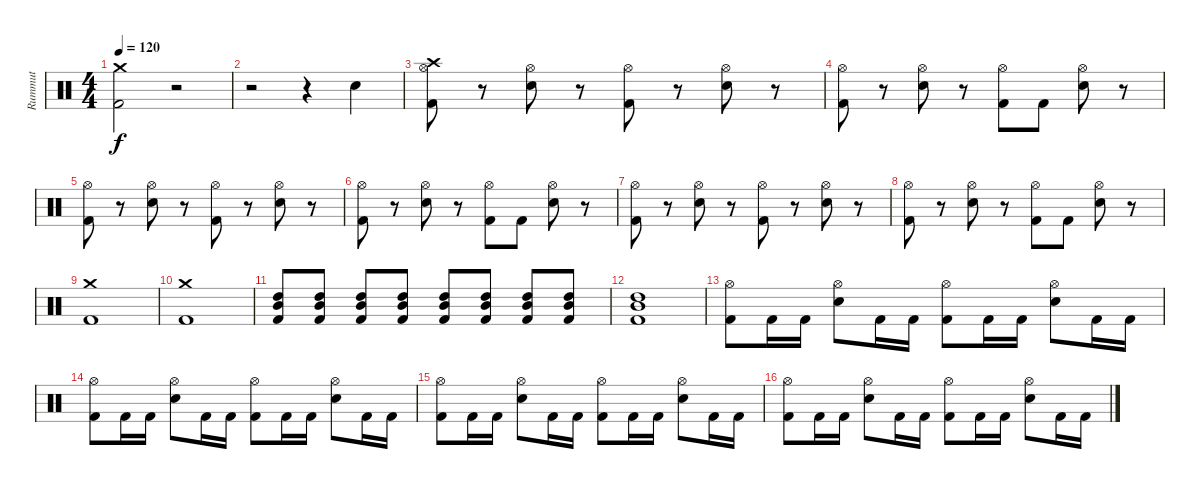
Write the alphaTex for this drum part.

\track ("Rummut" "Rummut") {instrument percussion}
\staff {score}
\articulation defaults
\ts (4 4)
\tempo 120
\clef neutral
\ks c
("Kick (hit) 2" "Crash medium (hit)").2{dy f} r.2 |
r.2 r.4 "Snare (hit) 2".4 |
("Kick (hit) 2" "Hi-Hat (open)" "Crash high (hit)").8 r.8 ("Snare (hit) 2" "Hi-Hat (open)").8 r.8 ("Kick (hit) 2" "Hi-Hat (open)").8 r.8 ("Snare (hit) 2" "Hi-Hat (open)").8 r.8 |
("Kick (hit) 2" "Hi-Hat (open)").8 r.8 ("Snare (hit) 2" "Hi-Hat (open)").8 r.8 ("Kick (hit) 2" "Hi-Hat (open)").8 "Kick (hit) 2".8 ("Snare (hit) 2" "Hi-Hat (open)").8 r.8 |
("Kick (hit) 2" "Hi-Hat (open)").8 r.8 ("Snare (hit) 2" "Hi-Hat (open)").8 r.8 ("Kick (hit) 2" "Hi-Hat (open)").8 r.8 ("Snare (hit) 2" "Hi-Hat (open)").8 r.8 |
("Kick (hit) 2" "Hi-Hat (open)").8 r.8 ("Snare (hit) 2" "Hi-Hat (open)").8 r.8 ("Kick (hit) 2" "Hi-Hat (open)").8 "Kick (hit) 2".8 ("Snare (hit) 2" "Hi-Hat (open)").8 r.8 |
("Kick (hit) 2" "Hi-Hat (open)").8 r.8 ("Snare (hit) 2" "Hi-Hat (open)").8 r.8 ("Kick (hit) 2" "Hi-Hat (open)").8 r.8 ("Snare (hit) 2" "Hi-Hat (open)").8 r.8 |
("Kick (hit) 2" "Hi-Hat (open)").8 r.8 ("Snare (hit) 2" "Hi-Hat (open)").8 r.8 ("Kick (hit) 2" "Hi-Hat (open)").8 "Kick (hit) 2".8 ("Snare (hit) 2" "Hi-Hat (open)").8 r.8 |
("Kick (hit) 2" "Crash medium (hit)").1 |
("Kick (hit) 2" "Crash medium (hit)").1 |
("Kick (hit) 2" "High Tom (hit)" "Mid Tom (hit)").8 ("Kick (hit) 2" "High Tom (hit)" "Mid Tom (hit)").8 ("Kick (hit) 2" "High Tom (hit)" "Mid Tom (hit)").8 ("Kick (hit) 2" "High Tom (hit)" "Mid Tom (hit)").8 ("Kick (hit) 2" "High Tom (hit)" "Mid Tom (hit)").8 ("Kick (hit) 2" "High Tom (hit)" "Mid Tom (hit)").8 ("Kick (hit) 2" "High Tom (hit)" "Mid Tom (hit)").8 ("Kick (hit) 2" "High Tom (hit)" "Mid Tom (hit)").8 |
("Kick (hit) 2" "High Tom (hit)" "Mid Tom (hit)").1 |
("Kick (hit) 2" "Hi-Hat (open)").8 "Kick (hit) 2".16 "Kick (hit) 2".16 ("Snare (hit) 2" "Hi-Hat (open)").8 "Kick (hit) 2".16 "Kick (hit) 2".16 ("Kick (hit) 2" "Hi-Hat (open)").8 "Kick (hit) 2".16 "Kick (hit) 2".16 ("Snare (hit) 2" "Hi-Hat (open)").8 "Kick (hit) 2".16 "Kick (hit) 2".16 |
("Kick (hit) 2" "Hi-Hat (open)").8 "Kick (hit) 2".16 "Kick (hit) 2".16 ("Snare (hit) 2" "Hi-Hat (open)").8 "Kick (hit) 2".16 "Kick (hit) 2".16 ("Kick (hit) 2" "Hi-Hat (open)").8 "Kick (hit) 2".16 "Kick (hit) 2".16 ("Snare (hit) 2" "Hi-Hat (open)").8 "Kick (hit) 2".16 "Kick (hit) 2".16 |
("Kick (hit) 2" "Hi-Hat (open)").8 "Kick (hit) 2".16 "Kick (hit) 2".16 ("Snare (hit) 2" "Hi-Hat (open)").8 "Kick (hit) 2".16 "Kick (hit) 2".16 ("Kick (hit) 2" "Hi-Hat (open)").8 "Kick (hit) 2".16 "Kick (hit) 2".16 ("Snare (hit) 2" "Hi-Hat (open)").8 "Kick (hit) 2".16 "Kick (hit) 2".16 |
("Kick (hit) 2" "Hi-Hat (open)").8 "Kick (hit) 2".16 "Kick (hit) 2".16 ("Snare (hit) 2" "Hi-Hat (open)").8 "Kick (hit) 2".16 "Kick (hit) 2".16 ("Kick (hit) 2" "Hi-Hat (open)").8 "Kick (hit) 2".16 "Kick (hit) 2".16 ("Snare (hit) 2" "Hi-Hat (open)").8 "Kick (hit) 2".16 "Kick (hit) 2".16
